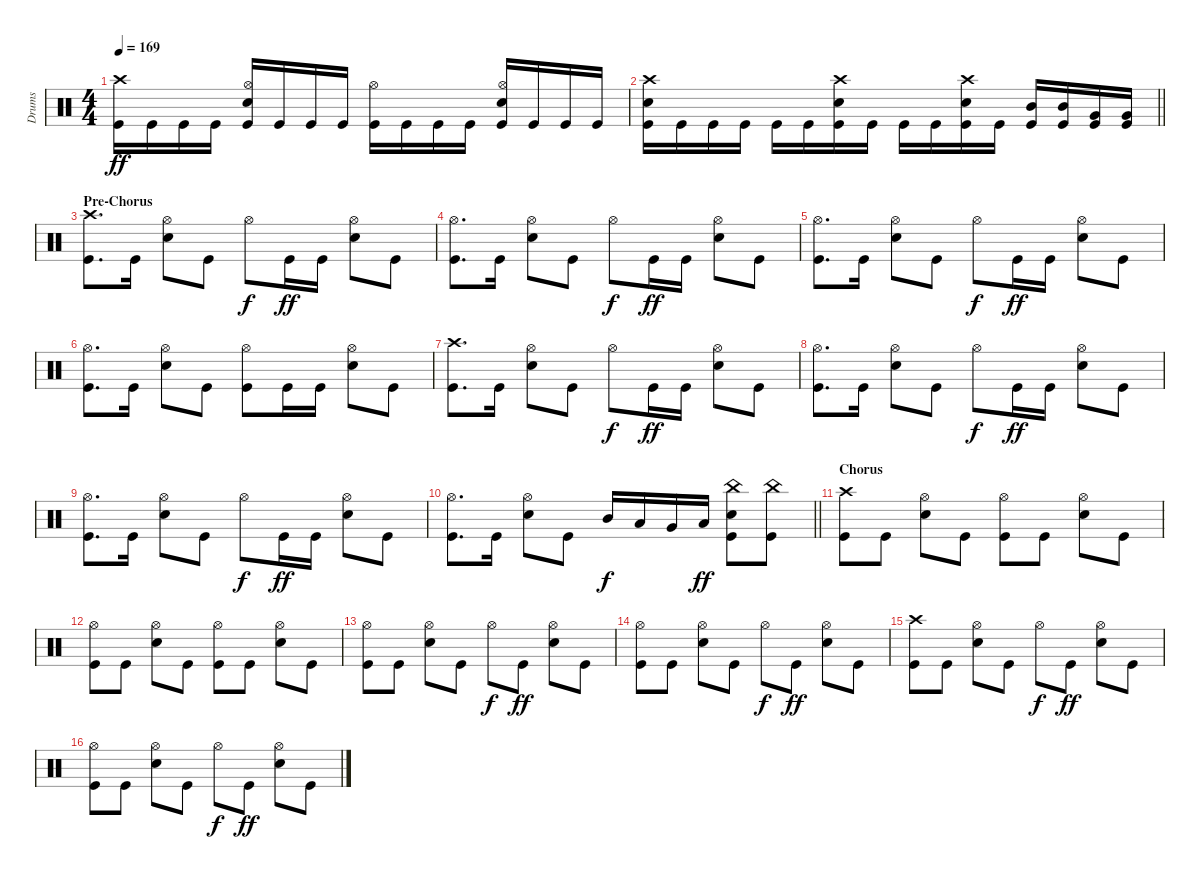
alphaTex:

\track ("Drums" "Drums") {instrument percussion}
\staff {score}
\articulation defaults
\ts (4 4)
\tempo 169
\clef neutral
\ks c
("Crash high (hit)" "Kick (hit)").16{dy ff} "Kick (hit)".16 "Kick (hit)".16 "Kick (hit)".16 ("Hi-Hat (open)" "Electric Snare (hit)" "Kick (hit)").16 "Kick (hit)".16 "Kick (hit)".16 "Kick (hit)".16 ("Hi-Hat (open)" "Kick (hit)").16 "Kick (hit)".16 "Kick (hit)".16 "Kick (hit)".16 ("Hi-Hat (open)" "Electric Snare (hit)" "Kick (hit)").16 "Kick (hit)".16 "Kick (hit)".16 "Kick (hit)".16 |
\barLineRight lightlight
("Crash high (hit)" "Electric Snare (hit)" "Kick (hit)").16 "Kick (hit)".16 "Kick (hit)".16 "Kick (hit)".16 "Kick (hit)".16 "Kick (hit)".16 ("Crash high (hit)" "Electric Snare (hit)" "Kick (hit)").16 "Kick (hit)".16 "Kick (hit)".16 "Kick (hit)".16 ("Crash high (hit)" "Electric Snare (hit)" "Kick (hit)").16 "Kick (hit)".16 ("Mid Tom (hit)" "Kick (hit)").16 ("Mid Tom (hit)" "Kick (hit)").16 ("Very Low Tom (hit)" "Kick (hit)").16 ("Very Low Tom (hit)" "Kick (hit)").16 |
\section ("" "Pre-Chorus")
("Crash high (hit)" "Kick (hit)").8{d} "Kick (hit)".16 ("Hi-Hat (open)" "Electric Snare (hit)").8 "Kick (hit)".8 "Hi-Hat (open)".8{dy f} "Kick (hit)".16{dy ff} "Kick (hit)".16 ("Hi-Hat (open)" "Electric Snare (hit)").8 "Kick (hit)".8 |
("Hi-Hat (open)" "Kick (hit)").8{d} "Kick (hit)".16 ("Hi-Hat (open)" "Electric Snare (hit)").8 "Kick (hit)".8 "Hi-Hat (open)".8{dy f} "Kick (hit)".16{dy ff} "Kick (hit)".16 ("Hi-Hat (open)" "Electric Snare (hit)").8 "Kick (hit)".8 |
("Hi-Hat (open)" "Kick (hit)").8{d} "Kick (hit)".16 ("Hi-Hat (open)" "Electric Snare (hit)").8 "Kick (hit)".8 "Hi-Hat (open)".8{dy f} "Kick (hit)".16{dy ff} "Kick (hit)".16 ("Hi-Hat (open)" "Electric Snare (hit)").8 "Kick (hit)".8 |
("Hi-Hat (open)" "Kick (hit)").8{d} "Kick (hit)".16 ("Hi-Hat (open)" "Electric Snare (hit)").8 "Kick (hit)".8 ("Hi-Hat (open)" "Kick (hit)").8 "Kick (hit)".16 "Kick (hit)".16 ("Hi-Hat (open)" "Electric Snare (hit)").8 "Kick (hit)".8 |
("Crash high (hit)" "Kick (hit)").8{d} "Kick (hit)".16 ("Hi-Hat (open)" "Electric Snare (hit)").8 "Kick (hit)".8 "Hi-Hat (open)".8{dy f} "Kick (hit)".16{dy ff} "Kick (hit)".16 ("Hi-Hat (open)" "Electric Snare (hit)").8 "Kick (hit)".8 |
("Hi-Hat (open)" "Kick (hit)").8{d} "Kick (hit)".16 ("Hi-Hat (open)" "Electric Snare (hit)").8 "Kick (hit)".8 "Hi-Hat (open)".8{dy f} "Kick (hit)".16{dy ff} "Kick (hit)".16 ("Hi-Hat (open)" "Electric Snare (hit)").8 "Kick (hit)".8 |
("Hi-Hat (open)" "Kick (hit)").8{d} "Kick (hit)".16 ("Hi-Hat (open)" "Electric Snare (hit)").8 "Kick (hit)".8 "Hi-Hat (open)".8{dy f} "Kick (hit)".16{dy ff} "Kick (hit)".16 ("Hi-Hat (open)" "Electric Snare (hit)").8 "Kick (hit)".8 |
\barLineRight lightlight
("Hi-Hat (open)" "Kick (hit)").8{d} "Kick (hit)".16 ("Hi-Hat (open)" "Electric Snare (hit)").8 "Kick (hit)".8 "Mid Tom (hit)".16{dy f} "Low Tom (hit)".16 "Very Low Tom (hit)".16 "Low Floor Tom (hit)".16{dy ff} ("China (hit)" "Electric Snare (hit)" "Kick (hit)").8 ("China (hit)" "Kick (hit)").8 |
\section ("" "Chorus")
("Crash high (hit)" "Kick (hit)").8 "Kick (hit)".8 ("Hi-Hat (open)" "Electric Snare (hit)").8 "Kick (hit)".8 ("Hi-Hat (open)" "Kick (hit)").8 "Kick (hit)".8 ("Hi-Hat (open)" "Electric Snare (hit)").8 "Kick (hit)".8 |
("Hi-Hat (open)" "Kick (hit)").8 "Kick (hit)".8 ("Hi-Hat (open)" "Electric Snare (hit)").8 "Kick (hit)".8 ("Hi-Hat (open)" "Kick (hit)").8 "Kick (hit)".8 ("Hi-Hat (open)" "Electric Snare (hit)").8 "Kick (hit)".8 |
("Hi-Hat (open)" "Kick (hit)").8 "Kick (hit)".8 ("Hi-Hat (open)" "Electric Snare (hit)").8 "Kick (hit)".8 "Hi-Hat (open)".8{dy f} "Kick (hit)".8{dy ff} ("Hi-Hat (open)" "Electric Snare (hit)").8 "Kick (hit)".8 |
("Hi-Hat (open)" "Kick (hit)").8 "Kick (hit)".8 ("Hi-Hat (open)" "Electric Snare (hit)").8 "Kick (hit)".8 "Hi-Hat (open)".8{dy f} "Kick (hit)".8{dy ff} ("Hi-Hat (open)" "Electric Snare (hit)").8 "Kick (hit)".8 |
("Crash high (hit)" "Kick (hit)").8 "Kick (hit)".8 ("Hi-Hat (open)" "Electric Snare (hit)").8 "Kick (hit)".8 "Hi-Hat (open)".8{dy f} "Kick (hit)".8{dy ff} ("Hi-Hat (open)" "Electric Snare (hit)").8 "Kick (hit)".8 |
("Hi-Hat (open)" "Kick (hit)").8 "Kick (hit)".8 ("Hi-Hat (open)" "Electric Snare (hit)").8 "Kick (hit)".8 "Hi-Hat (open)".8{dy f} "Kick (hit)".8{dy ff} ("Hi-Hat (open)" "Electric Snare (hit)").8 "Kick (hit)".8
